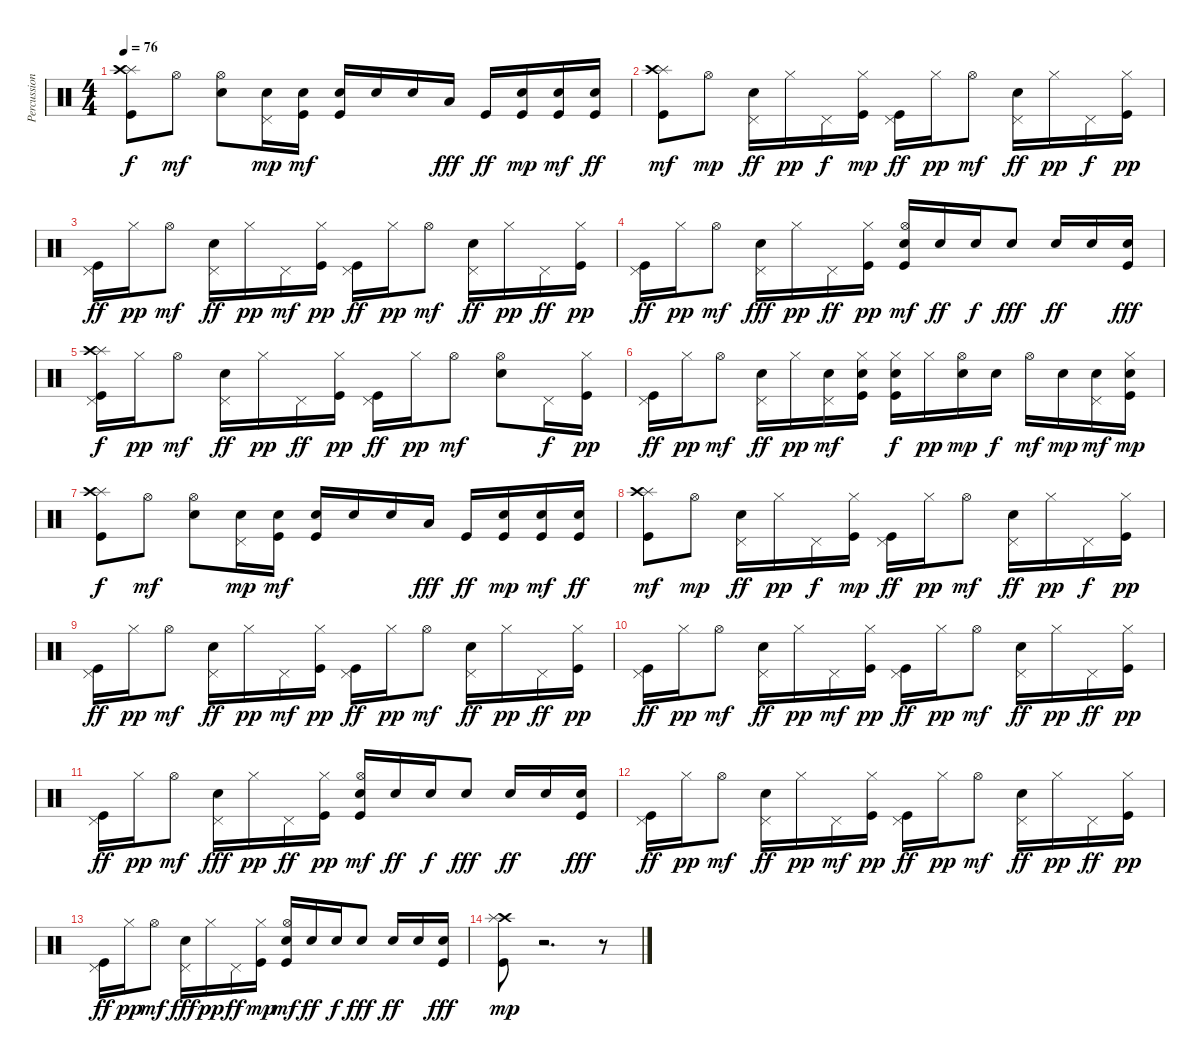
\track ("Percussion" "Percussion") {instrument percussion}
\staff {score}
\articulation defaults
\ts (4 4)
\tempo 76
\clef neutral
\ks c
("Splash (hit)" "Crash high (hit)" "Kick (hit)").8{dy f} "Hi-Hat (open)".8{dy mf} ("Hi-Hat (open)" "Snare (hit) 2").8 ("Pedal Hi-Hat (hit)" "Snare (hit) 2").16{dy mp} ("Kick (hit)" "Snare (hit) 2").16{dy mf} ("Kick (hit)" "Snare (hit) 2").16 "Snare (hit) 2".16 "Snare (hit) 2".16 "Low Tom (hit)".16{dy fff} "Kick (hit)".16{dy ff} ("Kick (hit)" "Snare (hit) 2").16{dy mp} ("Kick (hit)" "Snare (hit) 2").16{dy mf} ("Kick (hit)" "Snare (hit) 2").16{dy ff} |
("Splash (hit)" "Crash high (hit)" "Kick (hit)").8{dy mf} "Hi-Hat (open)".8{dy mp} ("Pedal Hi-Hat (hit)" "Snare (hit) 2").16{dy ff} "Hi-Hat (closed)".16{dy pp} "Pedal Hi-Hat (hit)".16{dy f} ("Hi-Hat (closed)" "Kick (hit)").16{dy mp} ("Pedal Hi-Hat (hit)" "Kick (hit)").16{dy ff} "Hi-Hat (closed)".16{dy pp} "Hi-Hat (open)".8{dy mf} ("Pedal Hi-Hat (hit)" "Snare (hit) 2").16{dy ff} "Hi-Hat (closed)".16{dy pp} "Pedal Hi-Hat (hit)".16{dy f} ("Kick (hit)" "Hi-Hat (closed)").16{dy pp} |
("Pedal Hi-Hat (hit)" "Kick (hit)").16{dy ff} "Hi-Hat (closed)".16{dy pp} "Hi-Hat (open)".8{dy mf} ("Pedal Hi-Hat (hit)" "Snare (hit) 2").16{dy ff} "Hi-Hat (closed)".16{dy pp} "Pedal Hi-Hat (hit)".16{dy mf} ("Hi-Hat (closed)" "Kick (hit)").16{dy pp} ("Pedal Hi-Hat (hit)" "Kick (hit)").16{dy ff} "Hi-Hat (closed)".16{dy pp} "Hi-Hat (open)".8{dy mf} ("Pedal Hi-Hat (hit)" "Snare (hit) 2").16{dy ff} "Hi-Hat (closed)".16{dy pp} "Pedal Hi-Hat (hit)".16{dy ff} ("Hi-Hat (closed)" "Kick (hit)").16{dy pp} |
("Pedal Hi-Hat (hit)" "Kick (hit)").16{dy ff} "Hi-Hat (closed)".16{dy pp} "Hi-Hat (open)".8{dy mf} ("Pedal Hi-Hat (hit)" "Snare (hit) 2").16{dy fff} "Hi-Hat (closed)".16{dy pp} "Pedal Hi-Hat (hit)".16{dy ff} ("Hi-Hat (closed)" "Kick (hit)").16{dy pp} ("Hi-Hat (open)" "Snare (hit) 2" "Kick (hit)").16{dy mf} "Snare (hit) 2".16{dy ff} "Snare (hit) 2".16{dy f} "Snare (hit) 2".8{dy fff} "Snare (hit) 2".16{dy ff} "Snare (hit) 2".16 ("Snare (hit) 2" "Kick (hit)").16{dy fff} |
("Splash (hit)" "Crash high (hit)" "Pedal Hi-Hat (hit)" "Kick (hit)").16{dy f} "Hi-Hat (closed)".16{dy pp} "Hi-Hat (open)".8{dy mf} ("Pedal Hi-Hat (hit)" "Snare (hit) 2").16{dy ff} "Hi-Hat (closed)".16{dy pp} "Pedal Hi-Hat (hit)".16{dy ff} ("Hi-Hat (closed)" "Kick (hit)").16{dy pp} ("Pedal Hi-Hat (hit)" "Kick (hit)").16{dy ff} "Hi-Hat (closed)".16{dy pp} "Hi-Hat (open)".8{dy mf} ("Hi-Hat (open)" "Snare (hit) 2").8 "Pedal Hi-Hat (hit)".16{dy f} ("Hi-Hat (closed)" "Kick (hit)").16{dy pp} |
("Pedal Hi-Hat (hit)" "Kick (hit)").16{dy ff} "Hi-Hat (closed)".16{dy pp} "Hi-Hat (open)".8{dy mf} ("Pedal Hi-Hat (hit)" "Snare (hit) 2").16{dy ff} "Hi-Hat (closed)".16{dy pp} ("Pedal Hi-Hat (hit)" "Snare (hit) 2").16{dy mf} ("Hi-Hat (closed)" "Snare (hit) 2" "Kick (hit)").16 ("Hi-Hat (closed)" "Snare (hit) 2" "Kick (hit)").16{dy f} "Hi-Hat (closed)".16{dy pp} ("Hi-Hat (open)" "Snare (hit) 2").16{dy mp} "Snare (hit) 2".16{dy f} "Hi-Hat (open)".16{dy mf} "Snare (hit) 2".16{dy mp} ("Pedal Hi-Hat (hit)" "Snare (hit) 2").16{dy mf} ("Hi-Hat (closed)" "Snare (hit) 2" "Kick (hit)").16{dy mp} |
("Splash (hit)" "Crash high (hit)" "Kick (hit)").8{dy f} "Hi-Hat (open)".8{dy mf} ("Hi-Hat (open)" "Snare (hit) 2").8 ("Pedal Hi-Hat (hit)" "Snare (hit) 2").16{dy mp} ("Snare (hit) 2" "Kick (hit)").16{dy mf} ("Snare (hit) 2" "Kick (hit)").16 "Snare (hit) 2".16 "Snare (hit) 2".16 "Low Tom (hit)".16{dy fff} "Kick (hit)".16{dy ff} ("Snare (hit) 2" "Kick (hit)").16{dy mp} ("Snare (hit) 2" "Kick (hit)").16{dy mf} ("Snare (hit) 2" "Kick (hit)").16{dy ff} |
("Splash (hit)" "Crash high (hit)" "Kick (hit)").8{dy mf} "Hi-Hat (open)".8{dy mp} ("Pedal Hi-Hat (hit)" "Snare (hit) 2").16{dy ff} "Hi-Hat (closed)".16{dy pp} "Pedal Hi-Hat (hit)".16{dy f} ("Hi-Hat (closed)" "Kick (hit)").16{dy mp} ("Pedal Hi-Hat (hit)" "Kick (hit)").16{dy ff} "Hi-Hat (closed)".16{dy pp} "Hi-Hat (open)".8{dy mf} ("Pedal Hi-Hat (hit)" "Snare (hit) 2").16{dy ff} "Hi-Hat (closed)".16{dy pp} "Pedal Hi-Hat (hit)".16{dy f} ("Hi-Hat (closed)" "Kick (hit)").16{dy pp} |
("Pedal Hi-Hat (hit)" "Kick (hit)").16{dy ff} "Hi-Hat (closed)".16{dy pp} "Hi-Hat (open)".8{dy mf} ("Pedal Hi-Hat (hit)" "Snare (hit) 2").16{dy ff} "Hi-Hat (closed)".16{dy pp} "Pedal Hi-Hat (hit)".16{dy mf} ("Hi-Hat (closed)" "Kick (hit)").16{dy pp} ("Pedal Hi-Hat (hit)" "Kick (hit)").16{dy ff} "Hi-Hat (closed)".16{dy pp} "Hi-Hat (open)".8{dy mf} ("Pedal Hi-Hat (hit)" "Snare (hit) 2").16{dy ff} "Hi-Hat (closed)".16{dy pp} "Pedal Hi-Hat (hit)".16{dy ff} ("Hi-Hat (closed)" "Kick (hit)").16{dy pp} |
("Pedal Hi-Hat (hit)" "Kick (hit)").16{dy ff} "Hi-Hat (closed)".16{dy pp} "Hi-Hat (open)".8{dy mf} ("Pedal Hi-Hat (hit)" "Snare (hit) 2").16{dy ff} "Hi-Hat (closed)".16{dy pp} "Pedal Hi-Hat (hit)".16{dy mf} ("Hi-Hat (closed)" "Kick (hit)").16{dy pp} ("Pedal Hi-Hat (hit)" "Kick (hit)").16{dy ff} "Hi-Hat (closed)".16{dy pp} "Hi-Hat (open)".8{dy mf} ("Pedal Hi-Hat (hit)" "Snare (hit) 2").16{dy ff} "Hi-Hat (closed)".16{dy pp} "Pedal Hi-Hat (hit)".16{dy ff} ("Hi-Hat (closed)" "Kick (hit)").16{dy pp} |
("Pedal Hi-Hat (hit)" "Kick (hit)").16{dy ff} "Hi-Hat (closed)".16{dy pp} "Hi-Hat (open)".8{dy mf} ("Pedal Hi-Hat (hit)" "Snare (hit) 2").16{dy fff} "Hi-Hat (closed)".16{dy pp} "Pedal Hi-Hat (hit)".16{dy ff} ("Hi-Hat (closed)" "Kick (hit)").16{dy pp} ("Hi-Hat (open)" "Snare (hit) 2" "Kick (hit)").16{dy mf} "Snare (hit) 2".16{dy ff} "Snare (hit) 2".16{dy f} "Snare (hit) 2".8{dy fff} "Snare (hit) 2".16{dy ff} "Snare (hit) 2".16 ("Snare (hit) 2" "Kick (hit)").16{dy fff} |
("Pedal Hi-Hat (hit)" "Kick (hit)").16{dy ff} "Hi-Hat (closed)".16{dy pp} "Hi-Hat (open)".8{dy mf} ("Pedal Hi-Hat (hit)" "Snare (hit) 2").16{dy ff} "Hi-Hat (closed)".16{dy pp} "Pedal Hi-Hat (hit)".16{dy mf} ("Hi-Hat (closed)" "Kick (hit)").16{dy pp} ("Pedal Hi-Hat (hit)" "Kick (hit)").16{dy ff} "Hi-Hat (closed)".16{dy pp} "Hi-Hat (open)".8{dy mf} ("Pedal Hi-Hat (hit)" "Snare (hit) 2").16{dy ff} "Hi-Hat (closed)".16{dy pp} "Pedal Hi-Hat (hit)".16{dy ff} ("Hi-Hat (closed)" "Kick (hit)").16{dy pp} |
("Pedal Hi-Hat (hit)" "Kick (hit)").16{dy ff} "Hi-Hat (closed)".16{dy pp} "Hi-Hat (open)".8{dy mf} ("Pedal Hi-Hat (hit)" "Snare (hit) 2").16{dy fff} "Hi-Hat (closed)".16{dy pp} "Pedal Hi-Hat (hit)".16{dy ff} ("Hi-Hat (closed)" "Kick (hit)").16{dy mp} ("Hi-Hat (open)" "Snare (hit) 2" "Kick (hit)").16{dy mf} "Snare (hit) 2".16{dy ff} "Snare (hit) 2".16{dy f} "Snare (hit) 2".8{dy fff} "Snare (hit) 2".16{dy ff} "Snare (hit) 2".16 ("Snare (hit) 2" "Kick (hit)").16{dy fff} |
("Kick (hit)" "Crash high (hit)" "Splash (hit)").8{dy mp} r.2{d} r.8
